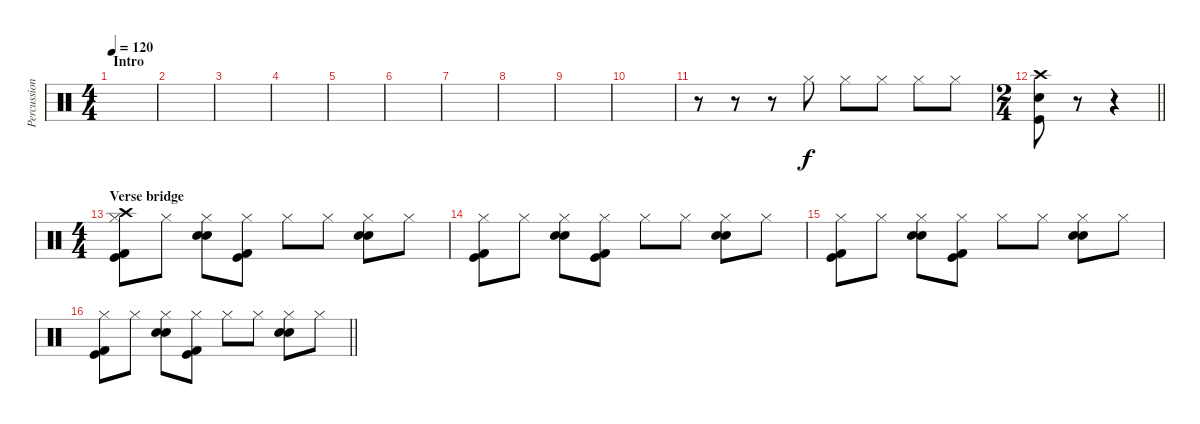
\track ("Percussions" "Percussion") {instrument percussion}
\staff {score}
\articulation defaults
\ts (4 4)
\section ("" "Intro")
\tempo 120
\clef neutral
\ks c
|
|
|
|
|
|
|
|
|
|
r.8 r.8 r.8 "Hi-Hat (closed)".8 "Hi-Hat (closed)".8 "Hi-Hat (closed)".8 "Hi-Hat (closed)".8 "Hi-Hat (closed)".8 |
\ts (2 4)
\barLineRight lightlight
("Crash high (hit)" "Electric Snare (hit)" "Kick (hit)").8 r.8 r.4 |
\ts (4 4)
\section ("" "Verse bridge")
("Crash high (hit)" "Hi-Hat (closed)" "Kick (hit)" "Kick (hit) 2").8 "Hi-Hat (closed)".8 ("Hi-Hat (closed)" "Electric Snare (hit)" "Electric Snare (hit)").8 ("Hi-Hat (closed)" "Kick (hit)" "Kick (hit) 2").8 "Hi-Hat (closed)".8 "Hi-Hat (closed)".8 ("Hi-Hat (closed)" "Electric Snare (hit)" "Electric Snare (hit)").8 "Hi-Hat (closed)".8 |
("Hi-Hat (closed)" "Kick (hit)" "Kick (hit) 2").8 "Hi-Hat (closed)".8 ("Hi-Hat (closed)" "Electric Snare (hit)" "Electric Snare (hit)").8 ("Hi-Hat (closed)" "Kick (hit)" "Kick (hit) 2").8 "Hi-Hat (closed)".8 "Hi-Hat (closed)".8 ("Hi-Hat (closed)" "Electric Snare (hit)" "Electric Snare (hit)").8 "Hi-Hat (closed)".8 |
("Hi-Hat (closed)" "Kick (hit)" "Kick (hit) 2").8 "Hi-Hat (closed)".8 ("Hi-Hat (closed)" "Electric Snare (hit)" "Electric Snare (hit)").8 ("Hi-Hat (closed)" "Kick (hit)" "Kick (hit) 2").8 "Hi-Hat (closed)".8 "Hi-Hat (closed)".8 ("Hi-Hat (closed)" "Electric Snare (hit)" "Electric Snare (hit)").8 "Hi-Hat (closed)".8 |
\barLineRight lightlight
("Hi-Hat (closed)" "Kick (hit)" "Kick (hit) 2").8 "Hi-Hat (closed)".8 ("Hi-Hat (closed)" "Electric Snare (hit)" "Electric Snare (hit)").8 ("Hi-Hat (closed)" "Kick (hit)" "Kick (hit) 2").8 "Hi-Hat (closed)".8 "Hi-Hat (closed)".8 ("Hi-Hat (closed)" "Electric Snare (hit)" "Electric Snare (hit)").8 "Hi-Hat (closed)".8
